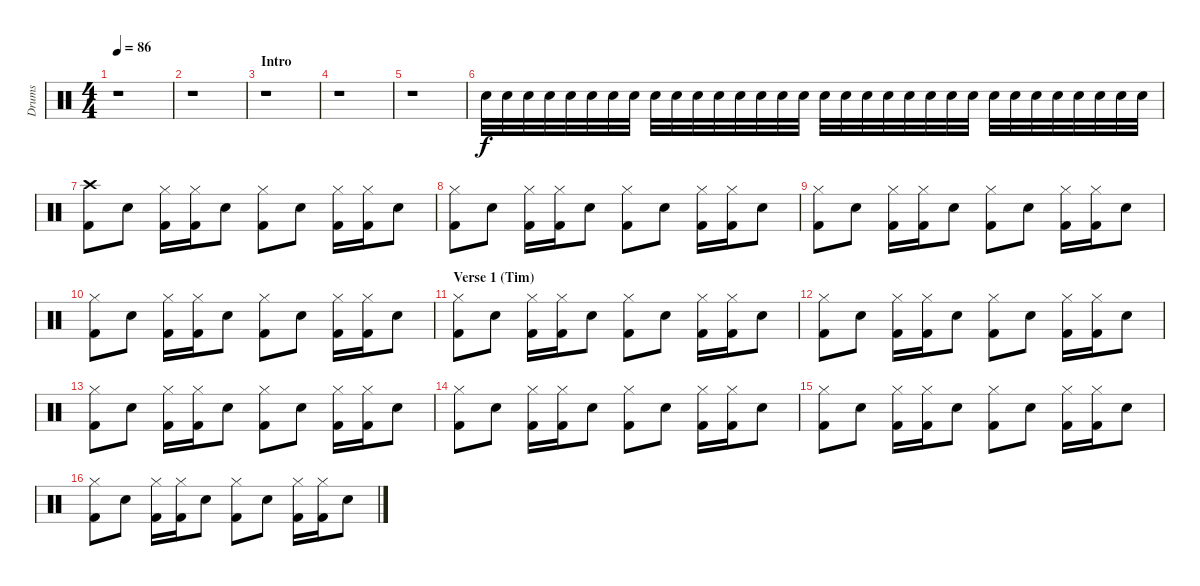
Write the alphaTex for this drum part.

\track ("Drums" "Drums") {instrument percussion}
\staff {score}
\articulation defaults
\ts (4 4)
\tempo 86
\clef neutral
\ks c
r.1{dy f} |
r.1 |
\section ("" "Intro")
r.1 |
r.1 |
r.1 |
"Electric Snare (hit)".32 "Electric Snare (hit)".32 "Electric Snare (hit)".32 "Electric Snare (hit)".32 "Electric Snare (hit)".32 "Electric Snare (hit)".32 "Electric Snare (hit)".32 "Electric Snare (hit)".32 "Electric Snare (hit)".32 "Electric Snare (hit)".32 "Electric Snare (hit)".32 "Electric Snare (hit)".32 "Electric Snare (hit)".32 "Electric Snare (hit)".32 "Electric Snare (hit)".32 "Electric Snare (hit)".32 "Electric Snare (hit)".32 "Electric Snare (hit)".32 "Electric Snare (hit)".32 "Electric Snare (hit)".32 "Electric Snare (hit)".32 "Electric Snare (hit)".32 "Electric Snare (hit)".32 "Electric Snare (hit)".32 "Electric Snare (hit)".32 "Electric Snare (hit)".32 "Electric Snare (hit)".32 "Electric Snare (hit)".32 "Electric Snare (hit)".32 "Electric Snare (hit)".32 "Electric Snare (hit)".32 "Electric Snare (hit)".32 |
("Crash high (hit)" "Kick (hit) 2").8 "Electric Snare (hit)".8 ("Hi-Hat (closed)" "Kick (hit) 2").16 ("Hi-Hat (closed)" "Kick (hit) 2").16 "Electric Snare (hit)".8 ("Hi-Hat (closed)" "Kick (hit) 2").8 "Electric Snare (hit)".8 ("Hi-Hat (closed)" "Kick (hit) 2").16 ("Hi-Hat (closed)" "Kick (hit) 2").16 "Electric Snare (hit)".8 |
("Hi-Hat (closed)" "Kick (hit) 2").8 "Electric Snare (hit)".8 ("Hi-Hat (closed)" "Kick (hit) 2").16 ("Hi-Hat (closed)" "Kick (hit) 2").16 "Electric Snare (hit)".8 ("Hi-Hat (closed)" "Kick (hit) 2").8 "Electric Snare (hit)".8 ("Hi-Hat (closed)" "Kick (hit) 2").16 ("Hi-Hat (closed)" "Kick (hit) 2").16 "Electric Snare (hit)".8 |
("Hi-Hat (closed)" "Kick (hit) 2").8 "Electric Snare (hit)".8 ("Hi-Hat (closed)" "Kick (hit) 2").16 ("Hi-Hat (closed)" "Kick (hit) 2").16 "Electric Snare (hit)".8 ("Hi-Hat (closed)" "Kick (hit) 2").8 "Electric Snare (hit)".8 ("Hi-Hat (closed)" "Kick (hit) 2").16 ("Hi-Hat (closed)" "Kick (hit) 2").16 "Electric Snare (hit)".8 |
("Hi-Hat (closed)" "Kick (hit) 2").8 "Electric Snare (hit)".8 ("Hi-Hat (closed)" "Kick (hit) 2").16 ("Hi-Hat (closed)" "Kick (hit) 2").16 "Electric Snare (hit)".8 ("Hi-Hat (closed)" "Kick (hit) 2").8 "Electric Snare (hit)".8 ("Hi-Hat (closed)" "Kick (hit) 2").16 ("Hi-Hat (closed)" "Kick (hit) 2").16 "Electric Snare (hit)".8 |
\section ("" "Verse 1 (Tim)")
("Hi-Hat (closed)" "Kick (hit) 2").8 "Electric Snare (hit)".8 ("Hi-Hat (closed)" "Kick (hit) 2").16 ("Hi-Hat (closed)" "Kick (hit) 2").16 "Electric Snare (hit)".8 ("Hi-Hat (closed)" "Kick (hit) 2").8 "Electric Snare (hit)".8 ("Hi-Hat (closed)" "Kick (hit) 2").16 ("Hi-Hat (closed)" "Kick (hit) 2").16 "Electric Snare (hit)".8 |
("Hi-Hat (closed)" "Kick (hit) 2").8 "Electric Snare (hit)".8 ("Hi-Hat (closed)" "Kick (hit) 2").16 ("Hi-Hat (closed)" "Kick (hit) 2").16 "Electric Snare (hit)".8 ("Hi-Hat (closed)" "Kick (hit) 2").8 "Electric Snare (hit)".8 ("Hi-Hat (closed)" "Kick (hit) 2").16 ("Hi-Hat (closed)" "Kick (hit) 2").16 "Electric Snare (hit)".8 |
("Hi-Hat (closed)" "Kick (hit) 2").8 "Electric Snare (hit)".8 ("Hi-Hat (closed)" "Kick (hit) 2").16 ("Hi-Hat (closed)" "Kick (hit) 2").16 "Electric Snare (hit)".8 ("Hi-Hat (closed)" "Kick (hit) 2").8 "Electric Snare (hit)".8 ("Hi-Hat (closed)" "Kick (hit) 2").16 ("Hi-Hat (closed)" "Kick (hit) 2").16 "Electric Snare (hit)".8 |
("Hi-Hat (closed)" "Kick (hit) 2").8 "Electric Snare (hit)".8 ("Hi-Hat (closed)" "Kick (hit) 2").16 ("Hi-Hat (closed)" "Kick (hit) 2").16 "Electric Snare (hit)".8 ("Hi-Hat (closed)" "Kick (hit) 2").8 "Electric Snare (hit)".8 ("Hi-Hat (closed)" "Kick (hit) 2").16 ("Hi-Hat (closed)" "Kick (hit) 2").16 "Electric Snare (hit)".8 |
("Hi-Hat (closed)" "Kick (hit) 2").8 "Electric Snare (hit)".8 ("Hi-Hat (closed)" "Kick (hit) 2").16 ("Hi-Hat (closed)" "Kick (hit) 2").16 "Electric Snare (hit)".8 ("Hi-Hat (closed)" "Kick (hit) 2").8 "Electric Snare (hit)".8 ("Hi-Hat (closed)" "Kick (hit) 2").16 ("Hi-Hat (closed)" "Kick (hit) 2").16 "Electric Snare (hit)".8 |
("Hi-Hat (closed)" "Kick (hit) 2").8 "Electric Snare (hit)".8 ("Hi-Hat (closed)" "Kick (hit) 2").16 ("Hi-Hat (closed)" "Kick (hit) 2").16 "Electric Snare (hit)".8 ("Hi-Hat (closed)" "Kick (hit) 2").8 "Electric Snare (hit)".8 ("Hi-Hat (closed)" "Kick (hit) 2").16 ("Hi-Hat (closed)" "Kick (hit) 2").16 "Electric Snare (hit)".8
